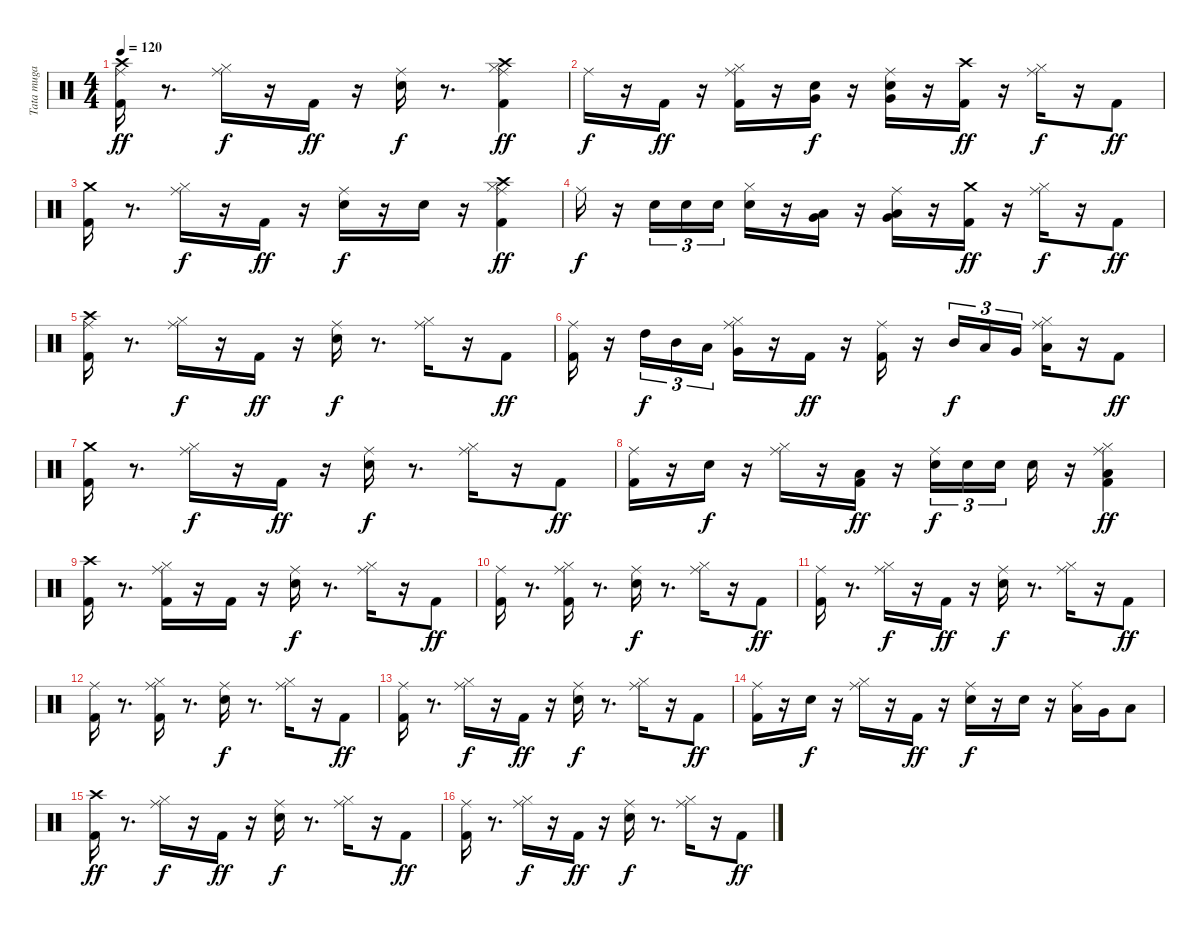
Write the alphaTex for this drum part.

\track ("Tata muga" "Tata muga") {instrument percussion}
\staff {score}
\articulation defaults
\ts (4 4)
\tempo 120
\clef neutral
\ks c
("Ride (middle)" "Crash high (hit)" "Kick (hit) 2").16{dy ff} r.8{d} ("Hi-Hat (closed)" "Ride (middle)").16{dy f} r.16 "Kick (hit) 2".16{dy ff} r.16 ("Ride (middle)" "Electric Snare (hit)").16{dy f} r.8{d} ("Crash high (hit)" "Hi-Hat (closed)" "Ride (middle)" "Kick (hit) 2").4{dy ff} |
"Ride (middle)".16{dy f} r.16 "Kick (hit) 2".16{dy ff} r.16 ("Hi-Hat (closed)" "Ride (middle)" "Kick (hit) 2").16 r.16 ("Very Low Tom (hit)" "Electric Snare (hit)").16{dy f} r.16 ("Ride (middle)" "Very Low Tom (hit)" "Electric Snare (hit)").16 r.16 ("Crash high (hit)" "Kick (hit) 2").16{dy ff} r.16 ("Hi-Hat (closed)" "Ride (middle)").16{dy f} r.16 "Kick (hit) 2".8{dy ff} |
("Crash medium (hit)" "Kick (hit) 2").16 r.8{d} ("Hi-Hat (closed)" "Ride (middle)").16{dy f} r.16 "Kick (hit) 2".16{dy ff} r.16 ("Ride (middle)" "Electric Snare (hit)").16{dy f} r.16 "Electric Snare (hit)".16 r.16 ("Hi-Hat (closed)" "Ride (middle)" "Crash high (hit)" "Kick (hit) 2").4{dy ff} |
"Ride (middle)".16{dy f} r.16 "Electric Snare (hit)".16{tu (3 2)} "Electric Snare (hit)".16{tu (3 2)} "Electric Snare (hit)".16{tu (3 2)} ("Hi-Hat (closed)" "Electric Snare (hit)").16 r.16 ("Low Tom (hit)" "Very Low Tom (hit)").16 r.16 ("Ride (middle)" "Low Tom (hit)" "Very Low Tom (hit)").16 r.16 ("Crash medium (hit)" "Kick (hit) 2").16{dy ff} r.16 ("Hi-Hat (closed)" "Ride (middle)").16{dy f} r.16 "Kick (hit) 2".8{dy ff} |
("Ride (middle)" "Crash high (hit)" "Kick (hit) 2").16 r.8{d} ("Ride (middle)" "Hi-Hat (closed)").16{dy f} r.16 "Kick (hit) 2".16{dy ff} r.16 ("Ride (middle)" "Electric Snare (hit)").16{dy f} r.8{d} ("Ride (middle)" "Hi-Hat (closed)").16 r.16 "Kick (hit) 2".8{dy ff} |
("Ride (middle)" "Kick (hit) 2").16 r.16 "High Tom (hit)".16{tu (3 2) dy f} "Mid Tom (hit)".16{tu (3 2)} "Low Tom (hit)".16{tu (3 2)} ("Ride (middle)" "Hi-Hat (closed)" "Very Low Tom (hit)").16 r.16 "Kick (hit) 2".16{dy ff} r.16 ("Ride (middle)" "Kick (hit) 2").16 r.16 "Mid Tom (hit)".16{tu (3 2) dy f} "Low Tom (hit)".16{tu (3 2)} "Very Low Tom (hit)".16{tu (3 2)} ("Ride (middle)" "Hi-Hat (closed)" "Low Floor Tom (hit)").16 r.16 "Kick (hit) 2".8{dy ff} |
("Crash medium (hit)" "Kick (hit) 2").16 r.8{d} ("Hi-Hat (closed)" "Ride (middle)").16{dy f} r.16 "Kick (hit) 2".16{dy ff} r.16 ("Ride (middle)" "Electric Snare (hit)").16{dy f} r.8{d} ("Ride (middle)" "Hi-Hat (closed)").16 r.16 "Kick (hit) 2".8{dy ff} |
("Ride (middle)" "Kick (hit) 2").16 r.16 "Electric Snare (hit)".16{dy f} r.16 ("Hi-Hat (closed)" "Ride (middle)").16 r.16 ("Low Floor Tom (hit)" "Kick (hit) 2").16{dy ff} r.16 ("Ride (middle)" "Electric Snare (hit)").16{tu (3 2) dy f} "Electric Snare (hit)".16{tu (3 2)} "Electric Snare (hit)".16{tu (3 2)} "Electric Snare (hit)".16 r.16 ("Ride (middle)" "Hi-Hat (closed)" "Low Floor Tom (hit)" "Kick (hit) 2").4{dy ff} |
("Crash high (hit)" "Kick (hit) 2").16 r.8{d} ("Hi-Hat (closed)" "Ride (middle)" "Kick (hit) 2").16 r.16 "Kick (hit) 2".16 r.16 ("Ride (middle)" "Electric Snare (hit)").16{dy f} r.8{d} ("Hi-Hat (closed)" "Ride (middle)").16 r.16 "Kick (hit) 2".8{dy ff} |
("Ride (middle)" "Kick (hit) 2").16 r.8{d} ("Ride (middle)" "Hi-Hat (closed)" "Kick (hit) 2").16 r.8{d} ("Ride (middle)" "Electric Snare (hit)").16{dy f} r.8{d} ("Ride (middle)" "Hi-Hat (closed)").16 r.16 "Kick (hit) 2".8{dy ff} |
("Ride (middle)" "Kick (hit) 2").16 r.8{d} ("Hi-Hat (closed)" "Ride (middle)").16{dy f} r.16 "Kick (hit) 2".16{dy ff} r.16 ("Ride (middle)" "Electric Snare (hit)").16{dy f} r.8{d} ("Ride (middle)" "Hi-Hat (closed)").16 r.16 "Kick (hit) 2".8{dy ff} |
("Ride (middle)" "Kick (hit) 2").16 r.8{d} ("Hi-Hat (closed)" "Ride (middle)" "Kick (hit) 2").16 r.8{d} ("Ride (middle)" "Electric Snare (hit)").16{dy f} r.8{d} ("Ride (middle)" "Hi-Hat (closed)").16 r.16 "Kick (hit) 2".8{dy ff} |
("Ride (middle)" "Kick (hit) 2").16 r.8{d} ("Hi-Hat (closed)" "Ride (middle)").16{dy f} r.16 "Kick (hit) 2".16{dy ff} r.16 ("Electric Snare (hit)" "Ride (middle)").16{dy f} r.8{d} ("Ride (middle)" "Hi-Hat (closed)").16 r.16 "Kick (hit) 2".8{dy ff} |
("Ride (middle)" "Kick (hit) 2").16 r.16 "Electric Snare (hit)".16{dy f} r.16 ("Hi-Hat (closed)" "Ride (middle)").16 r.16 "Kick (hit) 2".16{dy ff} r.16 ("Ride (middle)" "Electric Snare (hit)").16{dy f} r.16 "Electric Snare (hit)".16 r.16 ("Ride (middle)" "Low Tom (hit)").16 "Very Low Tom (hit)".16 "Low Floor Tom (hit)".8 |
("Crash high (hit)" "Kick (hit) 2").16{dy ff} r.8{d} ("Ride (middle)" "Hi-Hat (closed)").16{dy f} r.16 "Kick (hit) 2".16{dy ff} r.16 ("Ride (middle)" "Electric Snare (hit)").16{dy f} r.8{d} ("Hi-Hat (closed)" "Ride (middle)").16 r.16 "Kick (hit) 2".8{dy ff} |
("Ride (middle)" "Kick (hit) 2").16 r.8{d} ("Hi-Hat (closed)" "Ride (middle)").16{dy f} r.16 "Kick (hit) 2".16{dy ff} r.16 ("Ride (middle)" "Electric Snare (hit)").16{dy f} r.8{d} ("Ride (middle)" "Hi-Hat (closed)").16 r.16 "Kick (hit) 2".8{dy ff}
